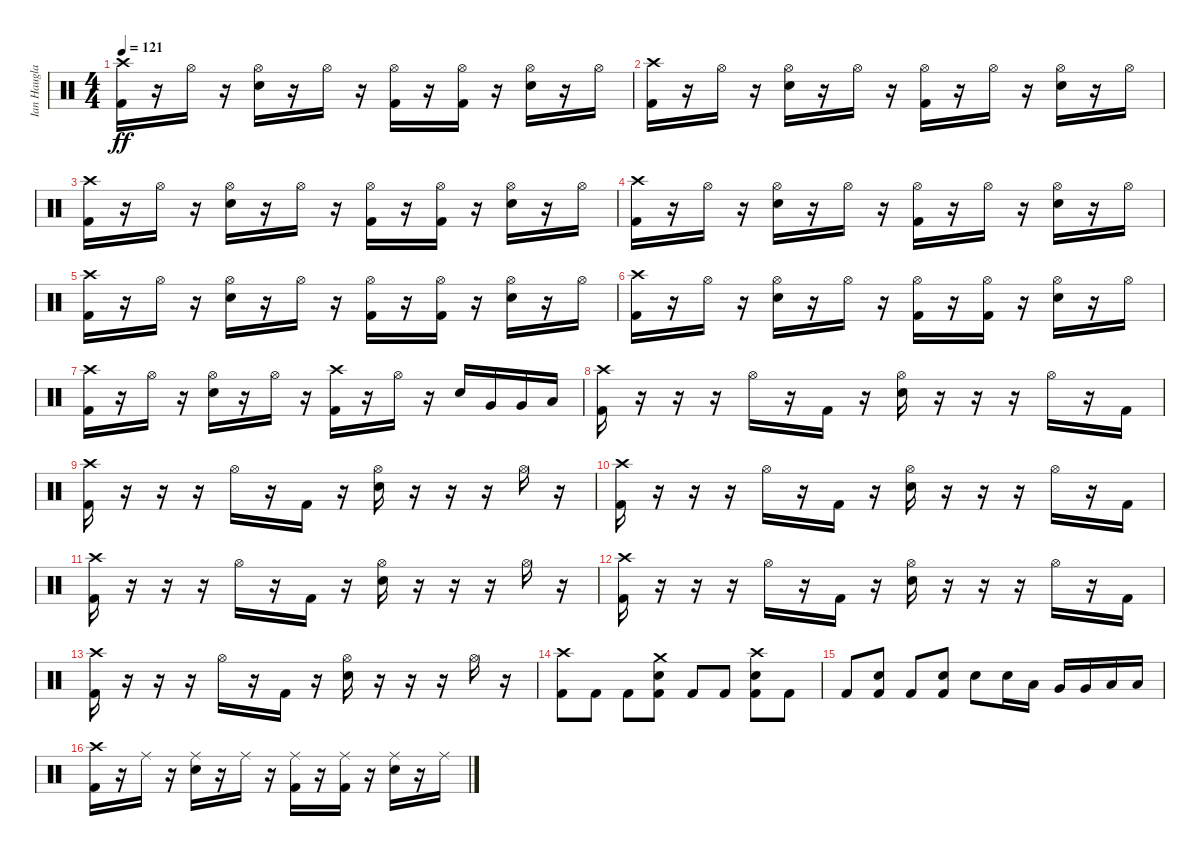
\track ("Ian Haugland" "Ian Haugla") {instrument percussion}
\staff {score}
\articulation defaults
\ts (4 4)
\tempo 121
\clef neutral
\ks c
("Crash high (hit)" "Kick (hit) 2").16{dy ff} r.16 "Hi-Hat (open)".16 r.16 ("Hi-Hat (open)" "Electric Snare (hit)").16 r.16 "Hi-Hat (open)".16 r.16 ("Hi-Hat (open)" "Kick (hit) 2").16 r.16 ("Hi-Hat (open)" "Kick (hit) 2").16 r.16 ("Hi-Hat (open)" "Electric Snare (hit)").16 r.16 "Hi-Hat (open)".16 |
("Crash high (hit)" "Kick (hit) 2").16 r.16 "Hi-Hat (open)".16 r.16 ("Hi-Hat (open)" "Electric Snare (hit)").16 r.16 "Hi-Hat (open)".16 r.16 ("Hi-Hat (open)" "Kick (hit) 2").16 r.16 "Hi-Hat (open)".16 r.16 ("Hi-Hat (open)" "Electric Snare (hit)").16 r.16 "Hi-Hat (open)".16 |
("Crash high (hit)" "Kick (hit) 2").16 r.16 "Hi-Hat (open)".16 r.16 ("Hi-Hat (open)" "Electric Snare (hit)").16 r.16 "Hi-Hat (open)".16 r.16 ("Hi-Hat (open)" "Kick (hit) 2").16 r.16 ("Hi-Hat (open)" "Kick (hit) 2").16 r.16 ("Hi-Hat (open)" "Electric Snare (hit)").16 r.16 "Hi-Hat (open)".16 |
("Crash high (hit)" "Kick (hit) 2").16 r.16 "Hi-Hat (open)".16 r.16 ("Hi-Hat (open)" "Electric Snare (hit)").16 r.16 "Hi-Hat (open)".16 r.16 ("Hi-Hat (open)" "Kick (hit) 2").16 r.16 "Hi-Hat (open)".16 r.16 ("Hi-Hat (open)" "Electric Snare (hit)").16 r.16 "Hi-Hat (open)".16 |
("Crash high (hit)" "Kick (hit) 2").16 r.16 "Hi-Hat (open)".16 r.16 ("Hi-Hat (open)" "Electric Snare (hit)").16 r.16 "Hi-Hat (open)".16 r.16 ("Hi-Hat (open)" "Kick (hit) 2").16 r.16 ("Hi-Hat (open)" "Kick (hit) 2").16 r.16 ("Hi-Hat (open)" "Electric Snare (hit)").16 r.16 "Hi-Hat (open)".16 |
("Crash high (hit)" "Kick (hit) 2").16 r.16 "Hi-Hat (open)".16 r.16 ("Hi-Hat (open)" "Electric Snare (hit)").16 r.16 "Hi-Hat (open)".16 r.16 ("Hi-Hat (open)" "Kick (hit) 2").16 r.16 ("Hi-Hat (open)" "Kick (hit) 2").16 r.16 ("Hi-Hat (open)" "Electric Snare (hit)").16 r.16 "Hi-Hat (open)".16 |
("Crash high (hit)" "Kick (hit) 2").16 r.16 "Hi-Hat (open)".16 r.16 ("Hi-Hat (open)" "Electric Snare (hit)").16 r.16 "Hi-Hat (open)".16 r.16 ("Crash high (hit)" "Kick (hit) 2").16 r.16 "Hi-Hat (open)".16 r.16 "Electric Snare (hit)".16 "Very Low Tom (hit)".16 "Very Low Tom (hit)".16 "Low Floor Tom (hit)".16 |
("Crash high (hit)" "Kick (hit) 2").16 r.16 r.16 r.16 "Hi-Hat (open)".16 r.16 "Kick (hit) 2".16 r.16 ("Hi-Hat (open)" "Electric Snare (hit)").16 r.16 r.16 r.16 "Hi-Hat (open)".16 r.16 "Kick (hit) 2".16 |
("Crash high (hit)" "Kick (hit) 2").16 r.16 r.16 r.16 "Hi-Hat (open)".16 r.16 "Kick (hit) 2".16 r.16 ("Hi-Hat (open)" "Electric Snare (hit)").16 r.16 r.16 r.16 "Hi-Hat (open)".16 r.16 |
("Crash high (hit)" "Kick (hit) 2").16 r.16 r.16 r.16 "Hi-Hat (open)".16 r.16 "Kick (hit) 2".16 r.16 ("Hi-Hat (open)" "Electric Snare (hit)").16 r.16 r.16 r.16 "Hi-Hat (open)".16 r.16 "Kick (hit) 2".16 |
("Crash high (hit)" "Kick (hit) 2").16 r.16 r.16 r.16 "Hi-Hat (open)".16 r.16 "Kick (hit) 2".16 r.16 ("Hi-Hat (open)" "Electric Snare (hit)").16 r.16 r.16 r.16 "Hi-Hat (open)".16 r.16 |
("Crash high (hit)" "Kick (hit) 2").16 r.16 r.16 r.16 "Hi-Hat (open)".16 r.16 "Kick (hit) 2".16 r.16 ("Hi-Hat (open)" "Electric Snare (hit)").16 r.16 r.16 r.16 "Hi-Hat (open)".16 r.16 "Kick (hit) 2".16 |
("Crash high (hit)" "Kick (hit) 2").16 r.16 r.16 r.16 "Hi-Hat (open)".16 r.16 "Kick (hit) 2".16 r.16 ("Hi-Hat (open)" "Electric Snare (hit)").16 r.16 r.16 r.16 "Hi-Hat (open)".16 r.16 |
("Crash high (hit)" "Kick (hit) 2").8 "Kick (hit) 2".8 "Kick (hit) 2".8 ("Crash medium (hit)" "Electric Snare (hit)" "Kick (hit) 2").8 "Kick (hit) 2".8 "Kick (hit) 2".8 ("Crash high (hit)" "Electric Snare (hit)" "Kick (hit) 2").8 "Kick (hit) 2".8 |
"Kick (hit) 2".8 ("Electric Snare (hit)" "Kick (hit) 2").8 "Kick (hit) 2".8 ("Electric Snare (hit)" "Kick (hit) 2").8 "Electric Snare (hit)".8 "Electric Snare (hit)".16 "Low Tom (hit)".16 "Very Low Tom (hit)".16 "Very Low Tom (hit)".16 "Low Floor Tom (hit)".16 "Low Floor Tom (hit)".16 |
("Crash high (hit)" "Kick (hit) 2").16 r.16 "Ride (middle)".16 r.16 ("Ride (middle)" "Electric Snare (hit)").16 r.16 "Ride (middle)".16 r.16 ("Ride (middle)" "Kick (hit) 2").16 r.16 ("Ride (middle)" "Kick (hit) 2").16 r.16 ("Ride (middle)" "Electric Snare (hit)").16 r.16 "Ride (middle)".16
